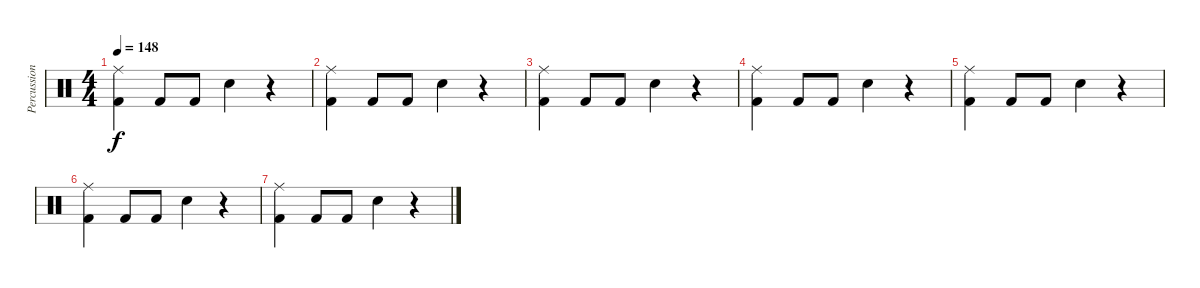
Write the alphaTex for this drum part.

\track ("Percussion" "Percussion") {instrument percussion}
\staff {score}
\articulation defaults
\ts (4 4)
\tempo 148
\clef neutral
\ks c
("Kick (hit) 2" "Ride (middle)").4{dy f} "Kick (hit) 2".8 "Kick (hit) 2".8 "Electric Snare (hit)".4 r.4 |
("Kick (hit) 2" "Ride (middle)").4 "Kick (hit) 2".8 "Kick (hit) 2".8 "Electric Snare (hit)".4 r.4 |
("Kick (hit) 2" "Ride (middle)").4 "Kick (hit) 2".8 "Kick (hit) 2".8 "Electric Snare (hit)".4 r.4 |
("Kick (hit) 2" "Ride (middle)").4 "Kick (hit) 2".8 "Kick (hit) 2".8 "Electric Snare (hit)".4 r.4 |
("Kick (hit) 2" "Ride (middle)").4 "Kick (hit) 2".8 "Kick (hit) 2".8 "Electric Snare (hit)".4 r.4 |
("Kick (hit) 2" "Ride (middle)").4 "Kick (hit) 2".8 "Kick (hit) 2".8 "Electric Snare (hit)".4 r.4 |
("Kick (hit) 2" "Ride (middle)").4 "Kick (hit) 2".8 "Kick (hit) 2".8 "Electric Snare (hit)".4 r.4
